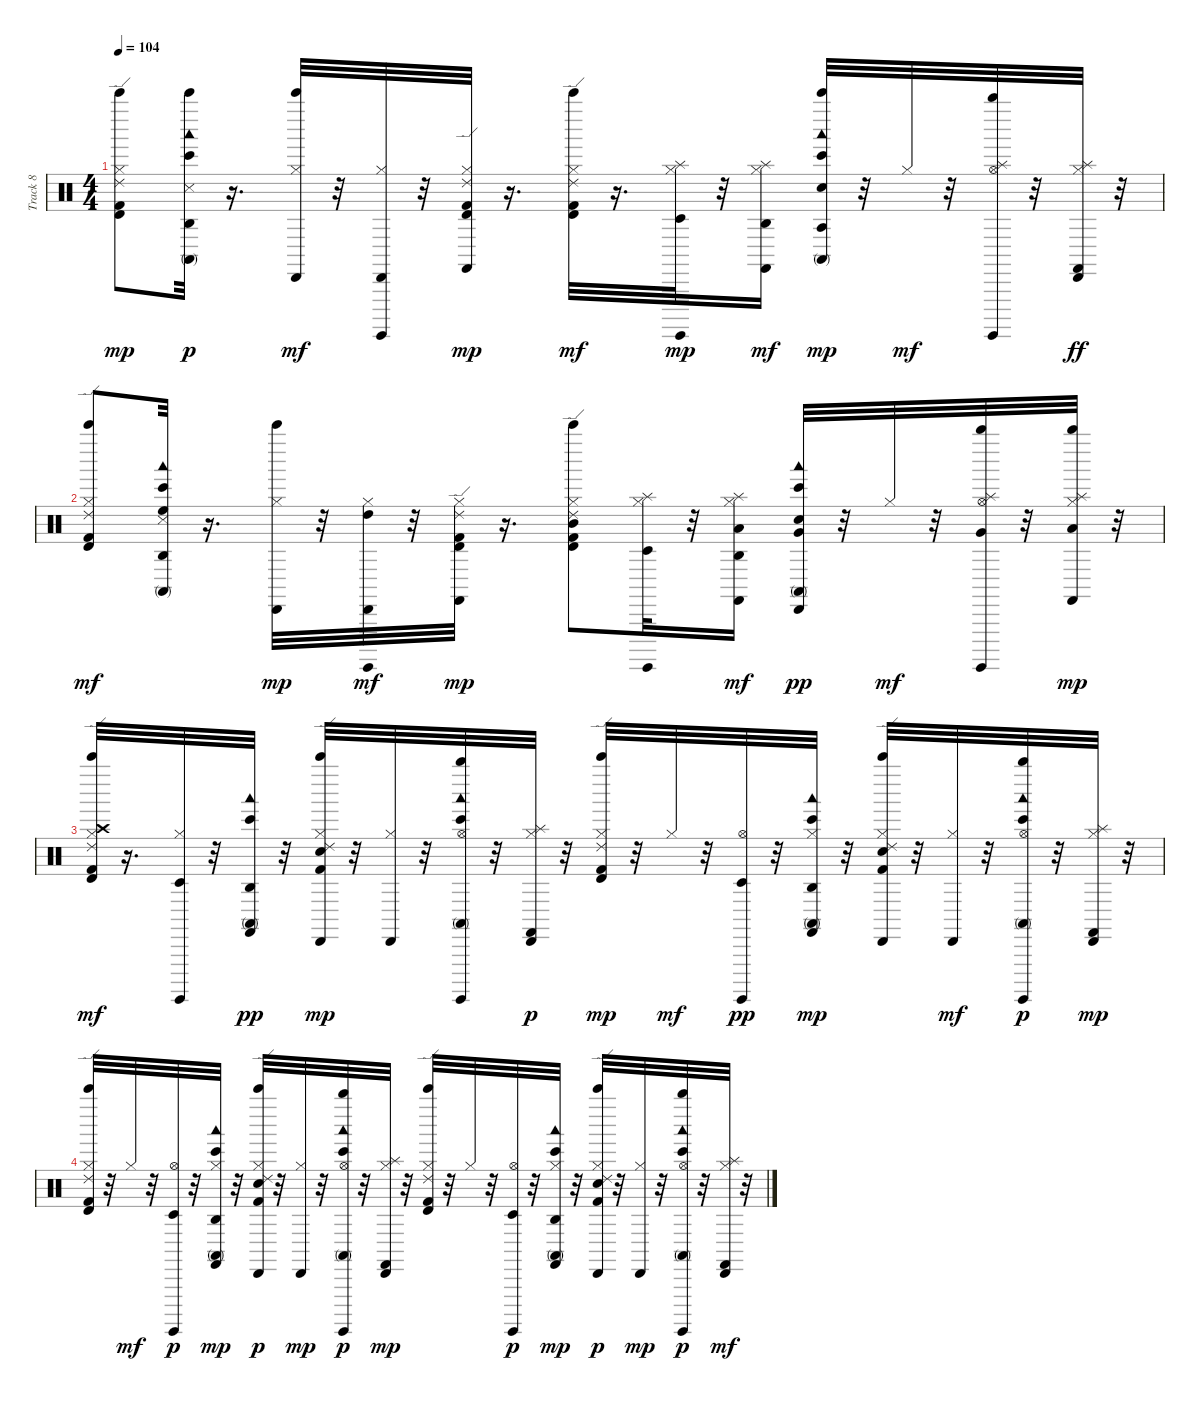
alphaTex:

\track ("Track 8" "Track 8") {instrument percussion}
\staff {score}
\articulation defaults
\ts (4 4)
\tempo 104
\clef neutral
\ks c
("Timbale high (hit)" "Ride (edge) 2" "Kick (hit) 2" "Bell Tree (hit)" "Hi-Hat (closed)").8{dy mp} ("Agogo high (hit)" "Conga high (mute)" "Bongo High (hit)" "Snare (side stick) 3" "Woodblock low (hit)" "Bell Tree (hit)").32{dy p} r.16{d} ("Cabasa (hit)" "Bell Tree (hit)" "Hi-Hat (closed)").32{dy mf} r.32 ("Cabasa (hit)" "Surdo (hit)" "Hi-Hat (closed)").32 r.32 ("Timbale high (hit)" "Ride (edge) 2" "Kick (hit) 2" "Castanets (hit)" "Hi-Hat (closed)").32{dy mp} r.16{d} ("Timbale high (hit)" "Ride (edge) 2" "Kick (hit) 2" "Bell Tree (hit)" "Hi-Hat (closed)").32{dy mf} r.16{d} ("Timbale low (hit)" "Surdo (hit)" "Hi-Hat (closed)" "Splash (hit)").32{dy mp} r.32 ("Agogo high (hit)" "Castanets (hit)" "Hi-Hat (closed)" "Splash (hit)").16{dy mf} ("Agogo tow (hit)" "Bongo High (hit)" "Conga high (mute)" "Electric Snare (hit)" "Woodblock low (hit)" "Bell Tree (hit)").32{dy mp} r.32 "Hi-Hat (closed)".32{dy mf} r.32 ("Whistle high (hit)" "Surdo (hit)" "Hi-Hat (open)" "Splash (hit)").32 r.32 ("Cabasa (hit)" "Castanets (hit)" "Hi-Hat (closed)" "Splash (hit)").32{dy ff} r.32 |
("Timbale high (hit)" "Ride (edge) 2" "Kick (hit) 2" "Bell Tree (hit)" "Hi-Hat (closed)").8{dy mf} ("Agogo high (hit)" "Bongo High (hit)" "Conga high (mute)" "Snare (side stick) 3" "Woodblock low (hit)" "High Floor Tom (hit)").32 r.16{d} ("Cabasa (hit)" "Bell Tree (hit)" "Hi-Hat (closed)").32{dy mp} r.32 ("Cabasa (hit)" "High Tom (hit)" "Surdo (hit)" "Hi-Hat (closed)").32{dy mf} r.32 ("Timbale high (hit)" "Ride (edge) 2" "Kick (hit) 2" "Castanets (hit)" "Hi-Hat (closed)").32{dy mp} r.16{d} ("Timbale high (hit)" "Ride (edge) 2" "Kick (hit) 2" "Mid Tom (hit)" "Bell Tree (hit)" "Hi-Hat (closed)").8 ("Timbale low (hit)" "Surdo (hit)" "Hi-Hat (closed)" "Splash (hit)").32 r.32 ("Agogo high (hit)" "Low Tom (hit)" "Castanets (hit)" "Hi-Hat (closed)" "Splash (hit)").16{dy mf} ("Cabasa (hit)" "Bongo High (hit)" "Conga high (mute)" "Electric Snare (hit)" "Woodblock low (hit)" "Very Low Tom (hit)").32{dy pp} r.32 "Hi-Hat (closed)".32{dy mf} r.32 ("Whistle high (hit)" "Very Low Tom (hit)" "Surdo (hit)" "Hi-Hat (open)" "Splash (hit)").32 r.32 ("Whistle high (hit)" "Low Floor Tom (hit)" "Castanets (hit)" "Hi-Hat (closed)" "Splash (hit)").32{dy mp} r.32 |
("Timbale high (hit)" "Ride (edge) 2" "Kick (hit) 2" "Crash high (hit)" "Bell Tree (hit)" "Hi-Hat (closed)").32{dy mf} r.16{d} ("Timbale low (hit)" "Surdo (hit)" "Hi-Hat (closed)").32 r.32 ("Agogo high (hit)" "Bongo High (hit)" "Conga high (mute)" "Woodblock low (hit)" "Castanets (hit)").32{dy pp} r.32 ("Cabasa (hit)" "Ride (edge) 2" "Kick (hit) 2" "Electric Snare (hit)" "Bell Tree (hit)" "Hi-Hat (closed)").32{dy mp} r.32 ("Cabasa (hit)" "Hi-Hat (closed)").32 r.32 ("Whistle high (hit)" "Bongo High (hit)" "Conga high (mute)" "Woodblock low (hit)" "Surdo (hit)" "Hi-Hat (open)").32 r.32 ("Cabasa (hit)" "Castanets (hit)" "Hi-Hat (closed)" "Splash (hit)").32{dy p} r.32 ("Timbale high (hit)" "Ride (edge) 2" "Kick (hit) 2" "Bell Tree (hit)" "Hi-Hat (closed)").32{dy mp} r.32 "Hi-Hat (closed)".32{dy mf} r.32 ("Timbale low (hit)" "Surdo (hit)" "Hi-Hat (open)").32{dy pp} r.32 ("Agogo high (hit)" "Bongo High (hit)" "Conga high (mute)" "Woodblock low (hit)" "Castanets (hit)" "Hi-Hat (closed)").32{dy mp} r.32 ("Cabasa (hit)" "Ride (edge) 2" "Kick (hit) 2" "Electric Snare (hit)" "Bell Tree (hit)" "Hi-Hat (closed)").32 r.32 ("Cabasa (hit)" "Hi-Hat (closed)").32{dy mf} r.32 ("Whistle high (hit)" "Conga high (mute)" "Bongo High (hit)" "Woodblock low (hit)" "Surdo (hit)" "Hi-Hat (open)").32{dy p} r.32 ("Cabasa (hit)" "Castanets (hit)" "Hi-Hat (closed)" "Splash (hit)").32{dy mp} r.32 |
("Timbale high (hit)" "Ride (edge) 2" "Kick (hit) 2" "Bell Tree (hit)" "Hi-Hat (closed)").32 r.32 "Hi-Hat (closed)".32{dy mf} r.32 ("Timbale low (hit)" "Surdo (hit)" "Hi-Hat (open)").32{dy p} r.32 ("Agogo high (hit)" "Bongo High (hit)" "Conga high (mute)" "Woodblock low (hit)" "Castanets (hit)" "Hi-Hat (closed)").32{dy mp} r.32 ("Cabasa (hit)" "Ride (edge) 2" "Kick (hit) 2" "Electric Snare (hit)" "Bell Tree (hit)" "Hi-Hat (closed)").32{dy p} r.32 ("Cabasa (hit)" "Hi-Hat (closed)").32{dy mp} r.32 ("Whistle high (hit)" "Bongo High (hit)" "Conga high (mute)" "Woodblock low (hit)" "Surdo (hit)" "Hi-Hat (open)").32{dy p} r.32 ("Cabasa (hit)" "Castanets (hit)" "Hi-Hat (closed)" "Splash (hit)").32{dy mp} r.32 ("Timbale high (hit)" "Ride (edge) 2" "Kick (hit) 2" "Bell Tree (hit)" "Hi-Hat (closed)").32 r.32 "Hi-Hat (closed)".32 r.32 ("Timbale low (hit)" "Surdo (hit)" "Hi-Hat (open)").32{dy p} r.32 ("Agogo high (hit)" "Bongo High (hit)" "Conga high (mute)" "Woodblock low (hit)" "Castanets (hit)" "Hi-Hat (closed)").32{dy mp} r.32 ("Cabasa (hit)" "Ride (edge) 2" "Kick (hit) 2" "Electric Snare (hit)" "Bell Tree (hit)" "Hi-Hat (closed)").32{dy p} r.32 ("Cabasa (hit)" "Hi-Hat (closed)").32{dy mp} r.32 ("Whistle high (hit)" "Bongo High (hit)" "Conga high (mute)" "Woodblock low (hit)" "Surdo (hit)" "Hi-Hat (open)").32{dy p} r.32 ("Cabasa (hit)" "Castanets (hit)" "Hi-Hat (closed)" "Splash (hit)").32{dy mf} r.32
